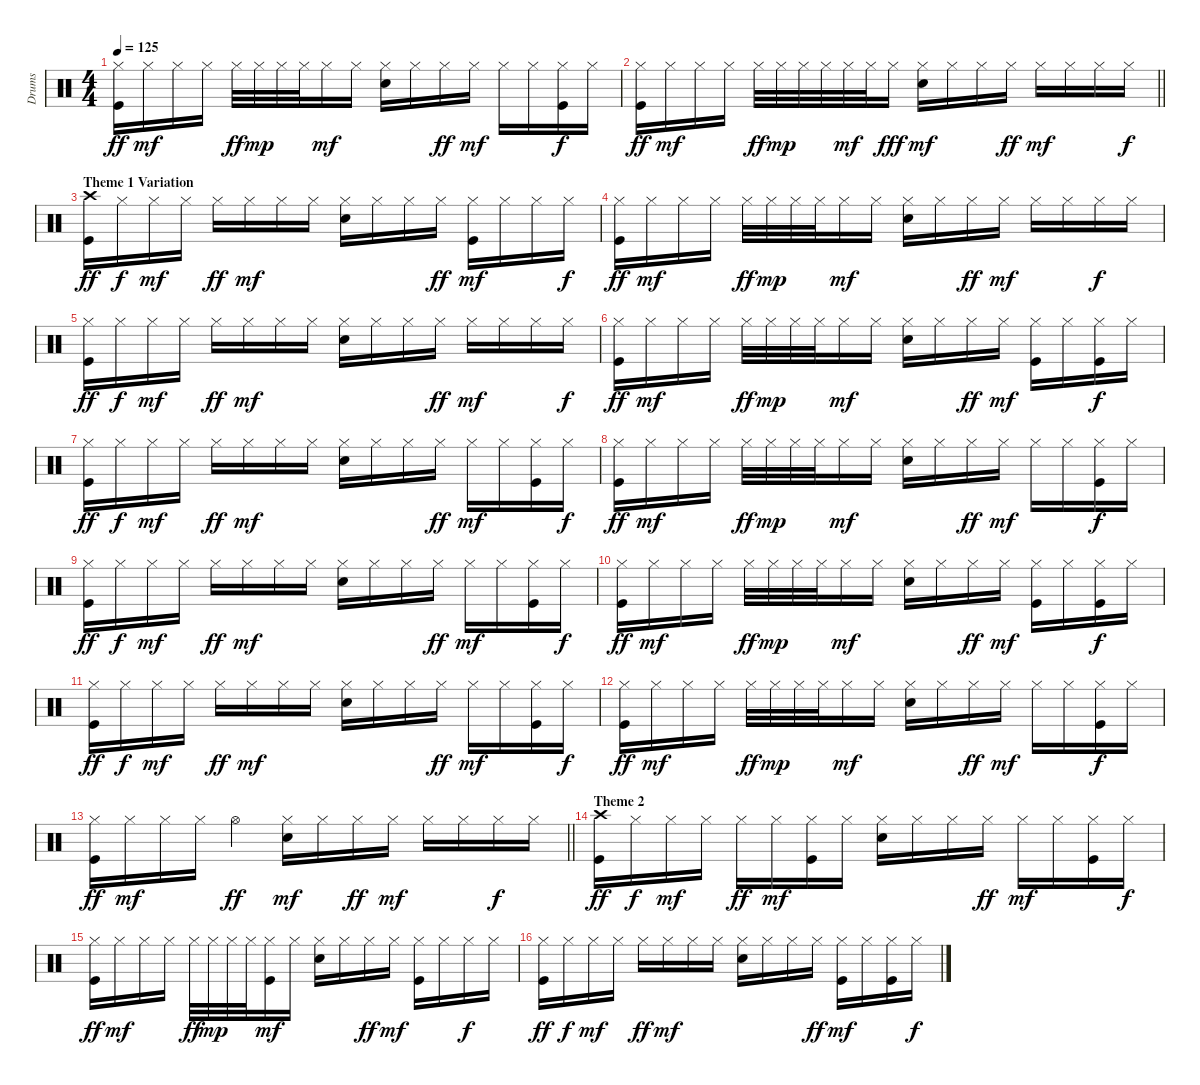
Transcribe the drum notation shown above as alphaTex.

\track ("Drums" "Drums") {instrument percussion}
\staff {score}
\articulation defaults
\ts (4 4)
\tempo 125
\clef neutral
\ks c
("Kick (hit)" "Hi-Hat (closed)").16{dy ff} "Hi-Hat (closed)".16{dy mf} "Hi-Hat (closed)".16 "Hi-Hat (closed)".16 "Hi-Hat (closed)".32{dy ff} "Hi-Hat (closed)".32{dy mp} "Hi-Hat (closed)".32 "Hi-Hat (closed)".32 "Hi-Hat (closed)".16{dy mf} "Hi-Hat (closed)".16 ("Hi-Hat (closed)" "Electric Snare (hit)").16 "Hi-Hat (closed)".16 "Hi-Hat (closed)".16{dy ff} "Hi-Hat (closed)".16{dy mf} "Hi-Hat (closed)".16 "Hi-Hat (closed)".16 ("Hi-Hat (closed)" "Kick (hit)").16{dy f} "Hi-Hat (closed)".16 |
\barLineRight lightlight
("Kick (hit)" "Hi-Hat (closed)").16{dy ff} "Hi-Hat (closed)".16{dy mf} "Hi-Hat (closed)".16 "Hi-Hat (closed)".16 "Hi-Hat (closed)".32{dy ff} "Hi-Hat (closed)".32{dy mp} "Hi-Hat (closed)".32 "Hi-Hat (closed)".32 "Hi-Hat (closed)".32{dy mf} "Hi-Hat (closed)".32 "Hi-Hat (closed)".16{dy fff} ("Hi-Hat (closed)" "Electric Snare (hit)").16{dy mf} "Hi-Hat (closed)".16 "Hi-Hat (closed)".16 "Hi-Hat (closed)".16{dy ff} "Hi-Hat (closed)".16{dy mf} "Hi-Hat (closed)".16 "Hi-Hat (closed)".16 "Hi-Hat (closed)".16{dy f} |
\section ("" "Theme 1 Variation")
("Kick (hit)" "Crash high (hit)").16{dy ff} "Hi-Hat (closed)".16{dy f} "Hi-Hat (closed)".16{dy mf} "Hi-Hat (closed)".16 "Hi-Hat (closed)".16{dy ff} "Hi-Hat (closed)".16{dy mf} "Hi-Hat (closed)".16 "Hi-Hat (closed)".16 ("Hi-Hat (closed)" "Electric Snare (hit)").16 "Hi-Hat (closed)".16 "Hi-Hat (closed)".16 "Hi-Hat (closed)".16{dy ff} ("Hi-Hat (closed)" "Kick (hit)").16{dy mf} "Hi-Hat (closed)".16 "Hi-Hat (closed)".16 "Hi-Hat (closed)".16{dy f} |
("Kick (hit)" "Hi-Hat (closed)").16{dy ff} "Hi-Hat (closed)".16{dy mf} "Hi-Hat (closed)".16 "Hi-Hat (closed)".16 "Hi-Hat (closed)".32{dy ff} "Hi-Hat (closed)".32{dy mp} "Hi-Hat (closed)".32 "Hi-Hat (closed)".32 "Hi-Hat (closed)".16{dy mf} "Hi-Hat (closed)".16 ("Hi-Hat (closed)" "Electric Snare (hit)").16 "Hi-Hat (closed)".16 "Hi-Hat (closed)".16{dy ff} "Hi-Hat (closed)".16{dy mf} "Hi-Hat (closed)".16 "Hi-Hat (closed)".16 "Hi-Hat (closed)".16{dy f} "Hi-Hat (closed)".16 |
("Hi-Hat (closed)" "Kick (hit)").16{dy ff} "Hi-Hat (closed)".16{dy f} "Hi-Hat (closed)".16{dy mf} "Hi-Hat (closed)".16 "Hi-Hat (closed)".16{dy ff} "Hi-Hat (closed)".16{dy mf} "Hi-Hat (closed)".16 "Hi-Hat (closed)".16 ("Hi-Hat (closed)" "Electric Snare (hit)").16 "Hi-Hat (closed)".16 "Hi-Hat (closed)".16 "Hi-Hat (closed)".16{dy ff} "Hi-Hat (closed)".16{dy mf} "Hi-Hat (closed)".16 "Hi-Hat (closed)".16 "Hi-Hat (closed)".16{dy f} |
("Kick (hit)" "Hi-Hat (closed)").16{dy ff} "Hi-Hat (closed)".16{dy mf} "Hi-Hat (closed)".16 "Hi-Hat (closed)".16 "Hi-Hat (closed)".32{dy ff} "Hi-Hat (closed)".32{dy mp} "Hi-Hat (closed)".32 "Hi-Hat (closed)".32 "Hi-Hat (closed)".16{dy mf} "Hi-Hat (closed)".16 ("Hi-Hat (closed)" "Electric Snare (hit)").16 "Hi-Hat (closed)".16 "Hi-Hat (closed)".16{dy ff} "Hi-Hat (closed)".16{dy mf} ("Hi-Hat (closed)" "Kick (hit)").16 "Hi-Hat (closed)".16 ("Hi-Hat (closed)" "Kick (hit)").16{dy f} "Hi-Hat (closed)".16 |
("Hi-Hat (closed)" "Kick (hit)").16{dy ff} "Hi-Hat (closed)".16{dy f} "Hi-Hat (closed)".16{dy mf} "Hi-Hat (closed)".16 "Hi-Hat (closed)".16{dy ff} "Hi-Hat (closed)".16{dy mf} "Hi-Hat (closed)".16 "Hi-Hat (closed)".16 ("Hi-Hat (closed)" "Electric Snare (hit)").16 "Hi-Hat (closed)".16 "Hi-Hat (closed)".16 "Hi-Hat (closed)".16{dy ff} "Hi-Hat (closed)".16{dy mf} "Hi-Hat (closed)".16 ("Hi-Hat (closed)" "Kick (hit)").16 "Hi-Hat (closed)".16{dy f} |
("Kick (hit)" "Hi-Hat (closed)").16{dy ff} "Hi-Hat (closed)".16{dy mf} "Hi-Hat (closed)".16 "Hi-Hat (closed)".16 "Hi-Hat (closed)".32{dy ff} "Hi-Hat (closed)".32{dy mp} "Hi-Hat (closed)".32 "Hi-Hat (closed)".32 "Hi-Hat (closed)".16{dy mf} "Hi-Hat (closed)".16 ("Hi-Hat (closed)" "Electric Snare (hit)").16 "Hi-Hat (closed)".16 "Hi-Hat (closed)".16{dy ff} "Hi-Hat (closed)".16{dy mf} "Hi-Hat (closed)".16 "Hi-Hat (closed)".16 ("Hi-Hat (closed)" "Kick (hit)").16{dy f} "Hi-Hat (closed)".16 |
("Hi-Hat (closed)" "Kick (hit)").16{dy ff} "Hi-Hat (closed)".16{dy f} "Hi-Hat (closed)".16{dy mf} "Hi-Hat (closed)".16 "Hi-Hat (closed)".16{dy ff} "Hi-Hat (closed)".16{dy mf} "Hi-Hat (closed)".16 "Hi-Hat (closed)".16 ("Hi-Hat (closed)" "Electric Snare (hit)").16 "Hi-Hat (closed)".16 "Hi-Hat (closed)".16 "Hi-Hat (closed)".16{dy ff} "Hi-Hat (closed)".16{dy mf} "Hi-Hat (closed)".16 ("Hi-Hat (closed)" "Kick (hit)").16 "Hi-Hat (closed)".16{dy f} |
("Hi-Hat (closed)" "Kick (hit)").16{dy ff} "Hi-Hat (closed)".16{dy mf} "Hi-Hat (closed)".16 "Hi-Hat (closed)".16 "Hi-Hat (closed)".32{dy ff} "Hi-Hat (closed)".32{dy mp} "Hi-Hat (closed)".32 "Hi-Hat (closed)".32 "Hi-Hat (closed)".16{dy mf} "Hi-Hat (closed)".16 ("Hi-Hat (closed)" "Electric Snare (hit)").16 "Hi-Hat (closed)".16 "Hi-Hat (closed)".16{dy ff} "Hi-Hat (closed)".16{dy mf} ("Hi-Hat (closed)" "Kick (hit)").16 "Hi-Hat (closed)".16 ("Hi-Hat (closed)" "Kick (hit)").16{dy f} "Hi-Hat (closed)".16 |
("Hi-Hat (closed)" "Kick (hit)").16{dy ff} "Hi-Hat (closed)".16{dy f} "Hi-Hat (closed)".16{dy mf} "Hi-Hat (closed)".16 "Hi-Hat (closed)".16{dy ff} "Hi-Hat (closed)".16{dy mf} "Hi-Hat (closed)".16 "Hi-Hat (closed)".16 ("Hi-Hat (closed)" "Electric Snare (hit)").16 "Hi-Hat (closed)".16 "Hi-Hat (closed)".16 "Hi-Hat (closed)".16{dy ff} "Hi-Hat (closed)".16{dy mf} "Hi-Hat (closed)".16 ("Hi-Hat (closed)" "Kick (hit)").16 "Hi-Hat (closed)".16{dy f} |
("Kick (hit)" "Hi-Hat (closed)").16{dy ff} "Hi-Hat (closed)".16{dy mf} "Hi-Hat (closed)".16 "Hi-Hat (closed)".16 "Hi-Hat (closed)".32{dy ff} "Hi-Hat (closed)".32{dy mp} "Hi-Hat (closed)".32 "Hi-Hat (closed)".32 "Hi-Hat (closed)".16{dy mf} "Hi-Hat (closed)".16 ("Hi-Hat (closed)" "Electric Snare (hit)").16 "Hi-Hat (closed)".16 "Hi-Hat (closed)".16{dy ff} "Hi-Hat (closed)".16{dy mf} "Hi-Hat (closed)".16 "Hi-Hat (closed)".16 ("Hi-Hat (closed)" "Kick (hit)").16{dy f} "Hi-Hat (closed)".16 |
\barLineRight lightlight
("Kick (hit)" "Hi-Hat (closed)").16{dy ff} "Hi-Hat (closed)".16{dy mf} "Hi-Hat (closed)".16 "Hi-Hat (closed)".16 "Hi-Hat (open)".4{dy ff} ("Hi-Hat (closed)" "Electric Snare (hit)").16{dy mf} "Hi-Hat (closed)".16 "Hi-Hat (closed)".16{dy ff} "Hi-Hat (closed)".16{dy mf} "Hi-Hat (closed)".16 "Hi-Hat (closed)".16 "Hi-Hat (closed)".16{dy f} "Hi-Hat (closed)".16 |
\section ("" "Theme 2")
("Kick (hit)" "Crash high (hit)").16{dy ff} "Hi-Hat (closed)".16{dy f} "Hi-Hat (closed)".16{dy mf} "Hi-Hat (closed)".16 "Hi-Hat (closed)".16{dy ff} "Hi-Hat (closed)".16{dy mf} ("Hi-Hat (closed)" "Kick (hit)").16 "Hi-Hat (closed)".16 ("Hi-Hat (closed)" "Electric Snare (hit)").16 "Hi-Hat (closed)".16 "Hi-Hat (closed)".16 "Hi-Hat (closed)".16{dy ff} "Hi-Hat (closed)".16{dy mf} "Hi-Hat (closed)".16 ("Hi-Hat (closed)" "Kick (hit)").16 "Hi-Hat (closed)".16{dy f} |
("Kick (hit)" "Hi-Hat (closed)").16{dy ff} "Hi-Hat (closed)".16{dy mf} "Hi-Hat (closed)".16 "Hi-Hat (closed)".16 "Hi-Hat (closed)".32{dy ff} "Hi-Hat (closed)".32{dy mp} "Hi-Hat (closed)".32 "Hi-Hat (closed)".32 ("Hi-Hat (closed)" "Kick (hit)").16{dy mf} "Hi-Hat (closed)".16 ("Hi-Hat (closed)" "Electric Snare (hit)").16 "Hi-Hat (closed)".16 "Hi-Hat (closed)".16{dy ff} "Hi-Hat (closed)".16{dy mf} ("Hi-Hat (closed)" "Kick (hit)").16 "Hi-Hat (closed)".16 "Hi-Hat (closed)".16{dy f} "Hi-Hat (closed)".16 |
("Hi-Hat (closed)" "Kick (hit)").16{dy ff} "Hi-Hat (closed)".16{dy f} "Hi-Hat (closed)".16{dy mf} "Hi-Hat (closed)".16 "Hi-Hat (closed)".16{dy ff} "Hi-Hat (closed)".16{dy mf} "Hi-Hat (closed)".16 "Hi-Hat (closed)".16 ("Hi-Hat (closed)" "Electric Snare (hit)").16 "Hi-Hat (closed)".16 "Hi-Hat (closed)".16 "Hi-Hat (closed)".16{dy ff} ("Hi-Hat (closed)" "Kick (hit)").16{dy mf} "Hi-Hat (closed)".16 ("Hi-Hat (closed)" "Kick (hit)").16 "Hi-Hat (closed)".16{dy f}
